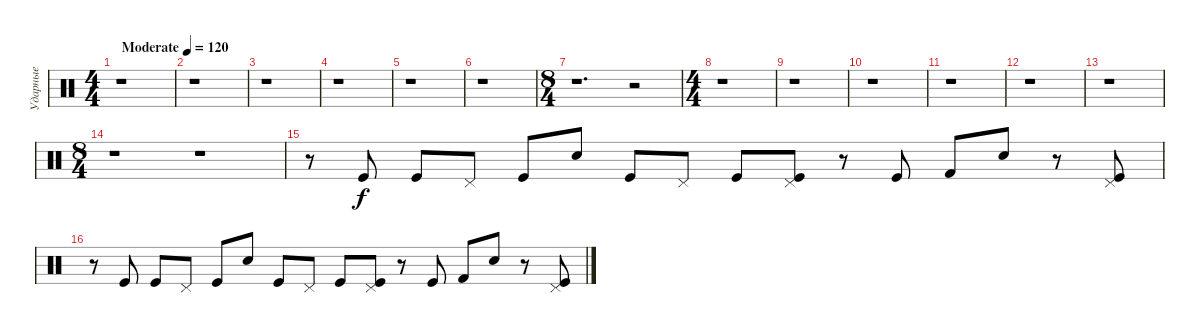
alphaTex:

\track ("Ударные" "Ударные") {instrument percussion}
\staff {score}
\articulation defaults
\ts (4 4)
\tempo (120 "Moderate")
\clef neutral
\ks c
r.1{dy f} |
r.1 |
r.1 |
r.1 |
r.1 |
r.1 |
\ts (8 4)
r.1{d} r.2 |
\ts (4 4)
r.1 |
r.1 |
r.1 |
r.1 |
r.1 |
r.1 |
\ts (8 4)
r.1 r.1 |
r.8 "Kick (hit)".8 "Kick (hit)".8 "Pedal Hi-Hat (hit)".8 "Kick (hit)".8 "Electric Snare (hit)".8 "Kick (hit)".8 "Pedal Hi-Hat (hit)".8 "Kick (hit)".8 ("Pedal Hi-Hat (hit)" "Kick (hit)").8 r.8 "Kick (hit)".8 "Kick (hit) 2".8 "Electric Snare (hit)".8 r.8 ("Pedal Hi-Hat (hit)" "Kick (hit)").8 |
r.8 "Kick (hit)".8 "Kick (hit)".8 "Pedal Hi-Hat (hit)".8 "Kick (hit)".8 "Electric Snare (hit)".8 "Kick (hit)".8 "Pedal Hi-Hat (hit)".8 "Kick (hit)".8 ("Pedal Hi-Hat (hit)" "Kick (hit)").8 r.8 "Kick (hit)".8 "Kick (hit) 2".8 "Electric Snare (hit)".8 r.8 ("Pedal Hi-Hat (hit)" "Kick (hit)").8
